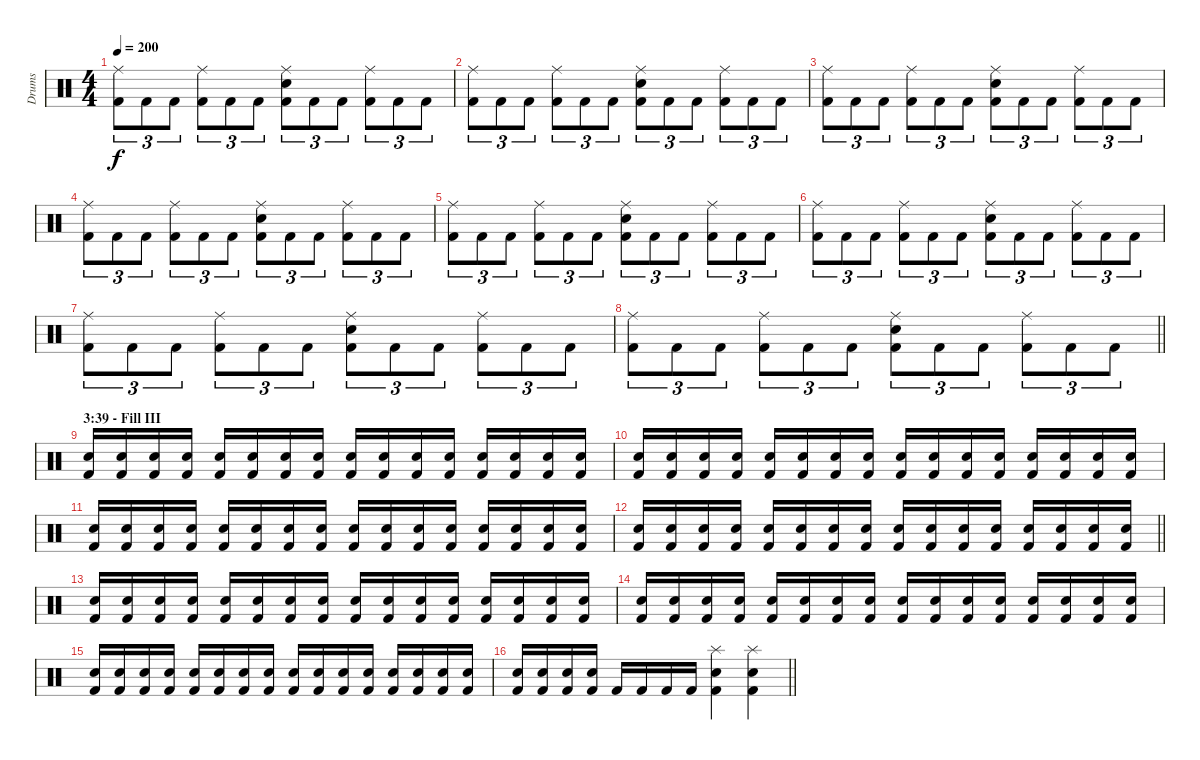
\track ("Drums" "Drums") {instrument percussion}
\staff {score}
\articulation defaults
\ts (4 4)
\tempo 200
\clef neutral
\ks c
("Ride (middle)" "Kick (hit) 2").8{tu (3 2) dy f} "Kick (hit) 2".8{tu (3 2)} "Kick (hit) 2".8{tu (3 2)} ("Ride (middle)" "Kick (hit) 2").8{tu (3 2)} "Kick (hit) 2".8{tu (3 2)} "Kick (hit) 2".8{tu (3 2)} ("Ride (middle)" "Electric Snare (hit)" "Kick (hit) 2").8{tu (3 2)} "Kick (hit) 2".8{tu (3 2)} "Kick (hit) 2".8{tu (3 2)} ("Ride (middle)" "Kick (hit) 2").8{tu (3 2)} "Kick (hit) 2".8{tu (3 2)} "Kick (hit) 2".8{tu (3 2)} |
("Ride (middle)" "Kick (hit) 2").8{tu (3 2)} "Kick (hit) 2".8{tu (3 2)} "Kick (hit) 2".8{tu (3 2)} ("Ride (middle)" "Kick (hit) 2").8{tu (3 2)} "Kick (hit) 2".8{tu (3 2)} "Kick (hit) 2".8{tu (3 2)} ("Ride (middle)" "Electric Snare (hit)" "Kick (hit) 2").8{tu (3 2)} "Kick (hit) 2".8{tu (3 2)} "Kick (hit) 2".8{tu (3 2)} ("Ride (middle)" "Kick (hit) 2").8{tu (3 2)} "Kick (hit) 2".8{tu (3 2)} "Kick (hit) 2".8{tu (3 2)} |
("Ride (middle)" "Kick (hit) 2").8{tu (3 2)} "Kick (hit) 2".8{tu (3 2)} "Kick (hit) 2".8{tu (3 2)} ("Ride (middle)" "Kick (hit) 2").8{tu (3 2)} "Kick (hit) 2".8{tu (3 2)} "Kick (hit) 2".8{tu (3 2)} ("Ride (middle)" "Electric Snare (hit)" "Kick (hit) 2").8{tu (3 2)} "Kick (hit) 2".8{tu (3 2)} "Kick (hit) 2".8{tu (3 2)} ("Ride (middle)" "Kick (hit) 2").8{tu (3 2)} "Kick (hit) 2".8{tu (3 2)} "Kick (hit) 2".8{tu (3 2)} |
("Ride (middle)" "Kick (hit) 2").8{tu (3 2)} "Kick (hit) 2".8{tu (3 2)} "Kick (hit) 2".8{tu (3 2)} ("Ride (middle)" "Kick (hit) 2").8{tu (3 2)} "Kick (hit) 2".8{tu (3 2)} "Kick (hit) 2".8{tu (3 2)} ("Ride (middle)" "Electric Snare (hit)" "Kick (hit) 2").8{tu (3 2)} "Kick (hit) 2".8{tu (3 2)} "Kick (hit) 2".8{tu (3 2)} ("Ride (middle)" "Kick (hit) 2").8{tu (3 2)} "Kick (hit) 2".8{tu (3 2)} "Kick (hit) 2".8{tu (3 2)} |
("Ride (middle)" "Kick (hit) 2").8{tu (3 2)} "Kick (hit) 2".8{tu (3 2)} "Kick (hit) 2".8{tu (3 2)} ("Ride (middle)" "Kick (hit) 2").8{tu (3 2)} "Kick (hit) 2".8{tu (3 2)} "Kick (hit) 2".8{tu (3 2)} ("Ride (middle)" "Electric Snare (hit)" "Kick (hit) 2").8{tu (3 2)} "Kick (hit) 2".8{tu (3 2)} "Kick (hit) 2".8{tu (3 2)} ("Ride (middle)" "Kick (hit) 2").8{tu (3 2)} "Kick (hit) 2".8{tu (3 2)} "Kick (hit) 2".8{tu (3 2)} |
("Ride (middle)" "Kick (hit) 2").8{tu (3 2)} "Kick (hit) 2".8{tu (3 2)} "Kick (hit) 2".8{tu (3 2)} ("Ride (middle)" "Kick (hit) 2").8{tu (3 2)} "Kick (hit) 2".8{tu (3 2)} "Kick (hit) 2".8{tu (3 2)} ("Ride (middle)" "Electric Snare (hit)" "Kick (hit) 2").8{tu (3 2)} "Kick (hit) 2".8{tu (3 2)} "Kick (hit) 2".8{tu (3 2)} ("Ride (middle)" "Kick (hit) 2").8{tu (3 2)} "Kick (hit) 2".8{tu (3 2)} "Kick (hit) 2".8{tu (3 2)} |
("Ride (middle)" "Kick (hit) 2").8{tu (3 2)} "Kick (hit) 2".8{tu (3 2)} "Kick (hit) 2".8{tu (3 2)} ("Ride (middle)" "Kick (hit) 2").8{tu (3 2)} "Kick (hit) 2".8{tu (3 2)} "Kick (hit) 2".8{tu (3 2)} ("Ride (middle)" "Electric Snare (hit)" "Kick (hit) 2").8{tu (3 2)} "Kick (hit) 2".8{tu (3 2)} "Kick (hit) 2".8{tu (3 2)} ("Ride (middle)" "Kick (hit) 2").8{tu (3 2)} "Kick (hit) 2".8{tu (3 2)} "Kick (hit) 2".8{tu (3 2)} |
\barLineRight lightlight
("Ride (middle)" "Kick (hit) 2").8{tu (3 2)} "Kick (hit) 2".8{tu (3 2)} "Kick (hit) 2".8{tu (3 2)} ("Ride (middle)" "Kick (hit) 2").8{tu (3 2)} "Kick (hit) 2".8{tu (3 2)} "Kick (hit) 2".8{tu (3 2)} ("Ride (middle)" "Electric Snare (hit)" "Kick (hit) 2").8{tu (3 2)} "Kick (hit) 2".8{tu (3 2)} "Kick (hit) 2".8{tu (3 2)} ("Ride (middle)" "Kick (hit) 2").8{tu (3 2)} "Kick (hit) 2".8{tu (3 2)} "Kick (hit) 2".8{tu (3 2)} |
\section ("" "3:39 - Fill III")
("Electric Snare (hit)" "Kick (hit) 2").16 ("Electric Snare (hit)" "Kick (hit) 2").16 ("Electric Snare (hit)" "Kick (hit) 2").16 ("Electric Snare (hit)" "Kick (hit) 2").16 ("Electric Snare (hit)" "Kick (hit) 2").16 ("Electric Snare (hit)" "Kick (hit) 2").16 ("Electric Snare (hit)" "Kick (hit) 2").16 ("Electric Snare (hit)" "Kick (hit) 2").16 ("Electric Snare (hit)" "Kick (hit) 2").16 ("Electric Snare (hit)" "Kick (hit) 2").16 ("Electric Snare (hit)" "Kick (hit) 2").16 ("Electric Snare (hit)" "Kick (hit) 2").16 ("Electric Snare (hit)" "Kick (hit) 2").16 ("Electric Snare (hit)" "Kick (hit) 2").16 ("Electric Snare (hit)" "Kick (hit) 2").16 ("Electric Snare (hit)" "Kick (hit) 2").16 |
("Electric Snare (hit)" "Kick (hit) 2").16 ("Electric Snare (hit)" "Kick (hit) 2").16 ("Electric Snare (hit)" "Kick (hit) 2").16 ("Electric Snare (hit)" "Kick (hit) 2").16 ("Electric Snare (hit)" "Kick (hit) 2").16 ("Electric Snare (hit)" "Kick (hit) 2").16 ("Electric Snare (hit)" "Kick (hit) 2").16 ("Electric Snare (hit)" "Kick (hit) 2").16 ("Electric Snare (hit)" "Kick (hit) 2").16 ("Electric Snare (hit)" "Kick (hit) 2").16 ("Electric Snare (hit)" "Kick (hit) 2").16 ("Electric Snare (hit)" "Kick (hit) 2").16 ("Electric Snare (hit)" "Kick (hit) 2").16 ("Electric Snare (hit)" "Kick (hit) 2").16 ("Electric Snare (hit)" "Kick (hit) 2").16 ("Electric Snare (hit)" "Kick (hit) 2").16 |
("Electric Snare (hit)" "Kick (hit) 2").16 ("Electric Snare (hit)" "Kick (hit) 2").16 ("Electric Snare (hit)" "Kick (hit) 2").16 ("Electric Snare (hit)" "Kick (hit) 2").16 ("Electric Snare (hit)" "Kick (hit) 2").16 ("Electric Snare (hit)" "Kick (hit) 2").16 ("Electric Snare (hit)" "Kick (hit) 2").16 ("Electric Snare (hit)" "Kick (hit) 2").16 ("Electric Snare (hit)" "Kick (hit) 2").16 ("Electric Snare (hit)" "Kick (hit) 2").16 ("Electric Snare (hit)" "Kick (hit) 2").16 ("Electric Snare (hit)" "Kick (hit) 2").16 ("Electric Snare (hit)" "Kick (hit) 2").16 ("Electric Snare (hit)" "Kick (hit) 2").16 ("Electric Snare (hit)" "Kick (hit) 2").16 ("Electric Snare (hit)" "Kick (hit) 2").16 |
\barLineRight lightlight
("Electric Snare (hit)" "Kick (hit) 2").16 ("Electric Snare (hit)" "Kick (hit) 2").16 ("Electric Snare (hit)" "Kick (hit) 2").16 ("Electric Snare (hit)" "Kick (hit) 2").16 ("Electric Snare (hit)" "Kick (hit) 2").16 ("Electric Snare (hit)" "Kick (hit) 2").16 ("Electric Snare (hit)" "Kick (hit) 2").16 ("Electric Snare (hit)" "Kick (hit) 2").16 ("Electric Snare (hit)" "Kick (hit) 2").16 ("Electric Snare (hit)" "Kick (hit) 2").16 ("Electric Snare (hit)" "Kick (hit) 2").16 ("Electric Snare (hit)" "Kick (hit) 2").16 ("Electric Snare (hit)" "Kick (hit) 2").16 ("Electric Snare (hit)" "Kick (hit) 2").16 ("Electric Snare (hit)" "Kick (hit) 2").16 ("Electric Snare (hit)" "Kick (hit) 2").16 |
("Electric Snare (hit)" "Kick (hit) 2").16 ("Electric Snare (hit)" "Kick (hit) 2").16 ("Electric Snare (hit)" "Kick (hit) 2").16 ("Electric Snare (hit)" "Kick (hit) 2").16 ("Electric Snare (hit)" "Kick (hit) 2").16 ("Electric Snare (hit)" "Kick (hit) 2").16 ("Electric Snare (hit)" "Kick (hit) 2").16 ("Electric Snare (hit)" "Kick (hit) 2").16 ("Electric Snare (hit)" "Kick (hit) 2").16 ("Electric Snare (hit)" "Kick (hit) 2").16 ("Electric Snare (hit)" "Kick (hit) 2").16 ("Electric Snare (hit)" "Kick (hit) 2").16 ("Electric Snare (hit)" "Kick (hit) 2").16 ("Electric Snare (hit)" "Kick (hit) 2").16 ("Electric Snare (hit)" "Kick (hit) 2").16 ("Electric Snare (hit)" "Kick (hit) 2").16 |
("Electric Snare (hit)" "Kick (hit) 2").16 ("Electric Snare (hit)" "Kick (hit) 2").16 ("Electric Snare (hit)" "Kick (hit) 2").16 ("Electric Snare (hit)" "Kick (hit) 2").16 ("Electric Snare (hit)" "Kick (hit) 2").16 ("Electric Snare (hit)" "Kick (hit) 2").16 ("Electric Snare (hit)" "Kick (hit) 2").16 ("Electric Snare (hit)" "Kick (hit) 2").16 ("Electric Snare (hit)" "Kick (hit) 2").16 ("Electric Snare (hit)" "Kick (hit) 2").16 ("Electric Snare (hit)" "Kick (hit) 2").16 ("Electric Snare (hit)" "Kick (hit) 2").16 ("Electric Snare (hit)" "Kick (hit) 2").16 ("Electric Snare (hit)" "Kick (hit) 2").16 ("Electric Snare (hit)" "Kick (hit) 2").16 ("Electric Snare (hit)" "Kick (hit) 2").16 |
("Electric Snare (hit)" "Kick (hit) 2").16 ("Electric Snare (hit)" "Kick (hit) 2").16 ("Electric Snare (hit)" "Kick (hit) 2").16 ("Electric Snare (hit)" "Kick (hit) 2").16 ("Electric Snare (hit)" "Kick (hit) 2").16 ("Electric Snare (hit)" "Kick (hit) 2").16 ("Electric Snare (hit)" "Kick (hit) 2").16 ("Electric Snare (hit)" "Kick (hit) 2").16 ("Electric Snare (hit)" "Kick (hit) 2").16 ("Electric Snare (hit)" "Kick (hit) 2").16 ("Electric Snare (hit)" "Kick (hit) 2").16 ("Electric Snare (hit)" "Kick (hit) 2").16 ("Electric Snare (hit)" "Kick (hit) 2").16 ("Electric Snare (hit)" "Kick (hit) 2").16 ("Electric Snare (hit)" "Kick (hit) 2").16 ("Electric Snare (hit)" "Kick (hit) 2").16 |
\barLineRight lightlight
("Electric Snare (hit)" "Kick (hit) 2").16 ("Electric Snare (hit)" "Kick (hit) 2").16 ("Electric Snare (hit)" "Kick (hit) 2").16 ("Electric Snare (hit)" "Kick (hit) 2").16 "Kick (hit) 2".16 "Kick (hit) 2".16 "Kick (hit) 2".16 "Kick (hit) 2".16 ("Splash (hit)" "Electric Snare (hit)" "Kick (hit) 2").4 ("Splash (hit)" "Electric Snare (hit)" "Kick (hit) 2").4
